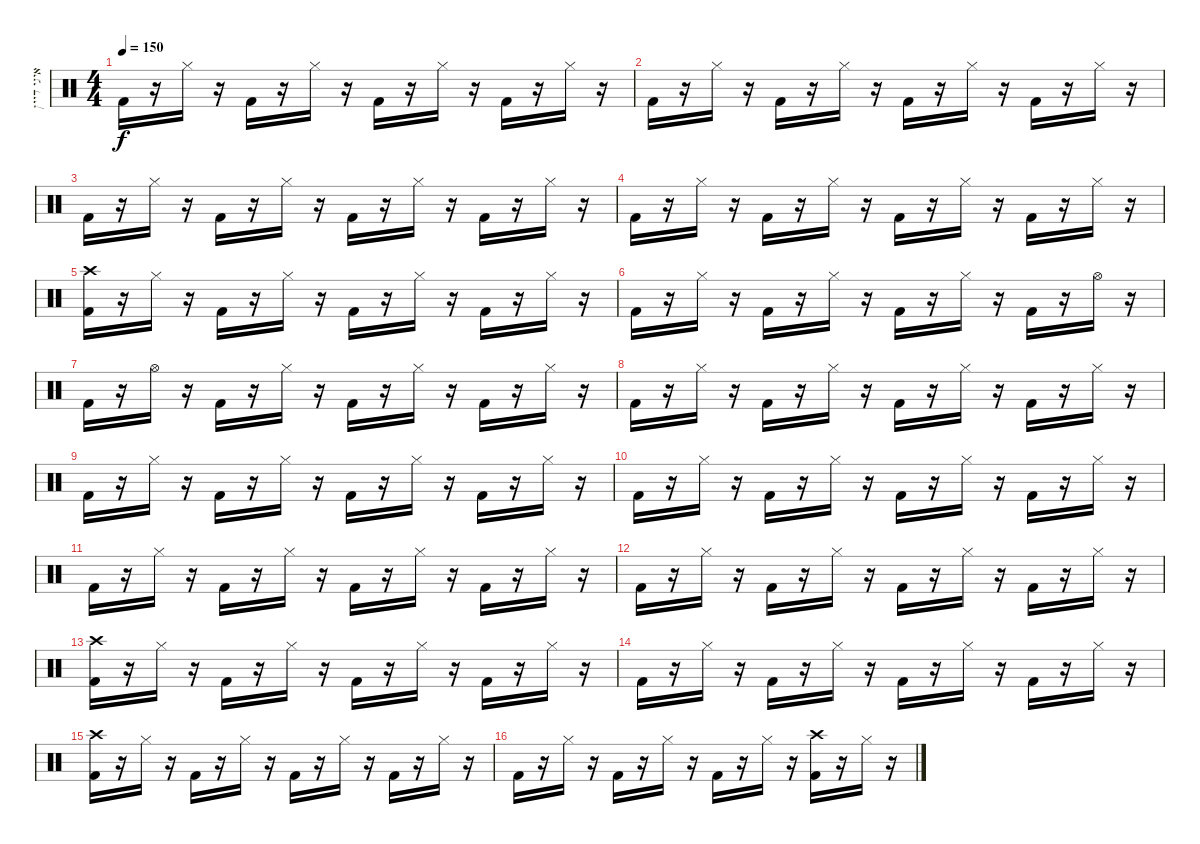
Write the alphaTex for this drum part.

\track ("איגי דיין" "איגי דיין") {instrument percussion}
\staff {score}
\articulation defaults
\ts (4 4)
\tempo 150
\clef neutral
\ks c "Kick (hit) 2".16{dy f}
r.16 "Hi-Hat (closed)".16 r.16 "Kick (hit) 2".16 r.16 "Hi-Hat (closed)".16 r.16 "Kick (hit) 2".16 r.16 "Hi-Hat (closed)".16 r.16 "Kick (hit) 2".16 r.16 "Hi-Hat (closed)".16 r.16 |
"Kick (hit) 2".16 r.16 "Hi-Hat (closed)".16 r.16 "Kick (hit) 2".16 r.16 "Hi-Hat (closed)".16 r.16 "Kick (hit) 2".16 r.16 "Hi-Hat (closed)".16 r.16 "Kick (hit) 2".16 r.16 "Hi-Hat (closed)".16 r.16 |
"Kick (hit) 2".16 r.16 "Hi-Hat (closed)".16 r.16 "Kick (hit) 2".16 r.16 "Hi-Hat (closed)".16 r.16 "Kick (hit) 2".16 r.16 "Hi-Hat (closed)".16 r.16 "Kick (hit) 2".16 r.16 "Hi-Hat (closed)".16 r.16 |
"Kick (hit) 2".16 r.16 "Hi-Hat (closed)".16 r.16 "Kick (hit) 2".16 r.16 "Hi-Hat (closed)".16 r.16 "Kick (hit) 2".16 r.16 "Hi-Hat (closed)".16 r.16 "Kick (hit) 2".16 r.16 "Hi-Hat (closed)".16 r.16 |
("Crash high (hit)" "Kick (hit) 2").16 r.16 "Hi-Hat (closed)".16 r.16 "Kick (hit) 2".16 r.16 "Hi-Hat (closed)".16 r.16 "Kick (hit) 2".16 r.16 "Hi-Hat (closed)".16 r.16 "Kick (hit) 2".16 r.16 "Hi-Hat (closed)".16 r.16 |
"Kick (hit) 2".16 r.16 "Hi-Hat (closed)".16 r.16 "Kick (hit) 2".16 r.16 "Hi-Hat (closed)".16 r.16 "Kick (hit) 2".16 r.16 "Hi-Hat (closed)".16 r.16 "Kick (hit) 2".16 r.16 "Hi-Hat (open)".16 r.16 |
"Kick (hit) 2".16 r.16 "Hi-Hat (open)".16 r.16 "Kick (hit) 2".16 r.16 "Hi-Hat (closed)".16 r.16 "Kick (hit) 2".16 r.16 "Hi-Hat (closed)".16 r.16 "Kick (hit) 2".16 r.16 "Hi-Hat (closed)".16 r.16 |
"Kick (hit) 2".16 r.16 "Hi-Hat (closed)".16 r.16 "Kick (hit) 2".16 r.16 "Hi-Hat (closed)".16 r.16 "Kick (hit) 2".16 r.16 "Hi-Hat (closed)".16 r.16 "Kick (hit) 2".16 r.16 "Hi-Hat (closed)".16 r.16 |
"Kick (hit) 2".16 r.16 "Hi-Hat (closed)".16 r.16 "Kick (hit) 2".16 r.16 "Hi-Hat (closed)".16 r.16 "Kick (hit) 2".16 r.16 "Hi-Hat (closed)".16 r.16 "Kick (hit) 2".16 r.16 "Hi-Hat (closed)".16 r.16 |
"Kick (hit) 2".16 r.16 "Hi-Hat (closed)".16 r.16 "Kick (hit) 2".16 r.16 "Hi-Hat (closed)".16 r.16 "Kick (hit) 2".16 r.16 "Hi-Hat (closed)".16 r.16 "Kick (hit) 2".16 r.16 "Hi-Hat (closed)".16 r.16 |
"Kick (hit) 2".16 r.16 "Hi-Hat (closed)".16 r.16 "Kick (hit) 2".16 r.16 "Hi-Hat (closed)".16 r.16 "Kick (hit) 2".16 r.16 "Hi-Hat (closed)".16 r.16 "Kick (hit) 2".16 r.16 "Hi-Hat (closed)".16 r.16 |
"Kick (hit) 2".16 r.16 "Hi-Hat (closed)".16 r.16 "Kick (hit) 2".16 r.16 "Hi-Hat (closed)".16 r.16 "Kick (hit) 2".16 r.16 "Hi-Hat (closed)".16 r.16 "Kick (hit) 2".16 r.16 "Hi-Hat (closed)".16 r.16 |
("Crash high (hit)" "Kick (hit) 2").16 r.16 "Hi-Hat (closed)".16 r.16 "Kick (hit) 2".16 r.16 "Hi-Hat (closed)".16 r.16 "Kick (hit) 2".16 r.16 "Hi-Hat (closed)".16 r.16 "Kick (hit) 2".16 r.16 "Hi-Hat (closed)".16 r.16 |
"Kick (hit) 2".16 r.16 "Hi-Hat (closed)".16 r.16 "Kick (hit) 2".16 r.16 "Hi-Hat (closed)".16 r.16 "Kick (hit) 2".16 r.16 "Hi-Hat (closed)".16 r.16 "Kick (hit) 2".16 r.16 "Hi-Hat (closed)".16 r.16 |
("Crash high (hit)" "Kick (hit) 2").16 r.16 "Hi-Hat (closed)".16 r.16 "Kick (hit) 2".16 r.16 "Hi-Hat (closed)".16 r.16 "Kick (hit) 2".16 r.16 "Hi-Hat (closed)".16 r.16 "Kick (hit) 2".16 r.16 "Hi-Hat (closed)".16 r.16 |
"Kick (hit) 2".16 r.16 "Hi-Hat (closed)".16 r.16 "Kick (hit) 2".16 r.16 "Hi-Hat (closed)".16 r.16 "Kick (hit) 2".16 r.16 "Hi-Hat (closed)".16 r.16 ("Crash high (hit)" "Kick (hit) 2").16 r.16 "Hi-Hat (closed)".16 r.16
